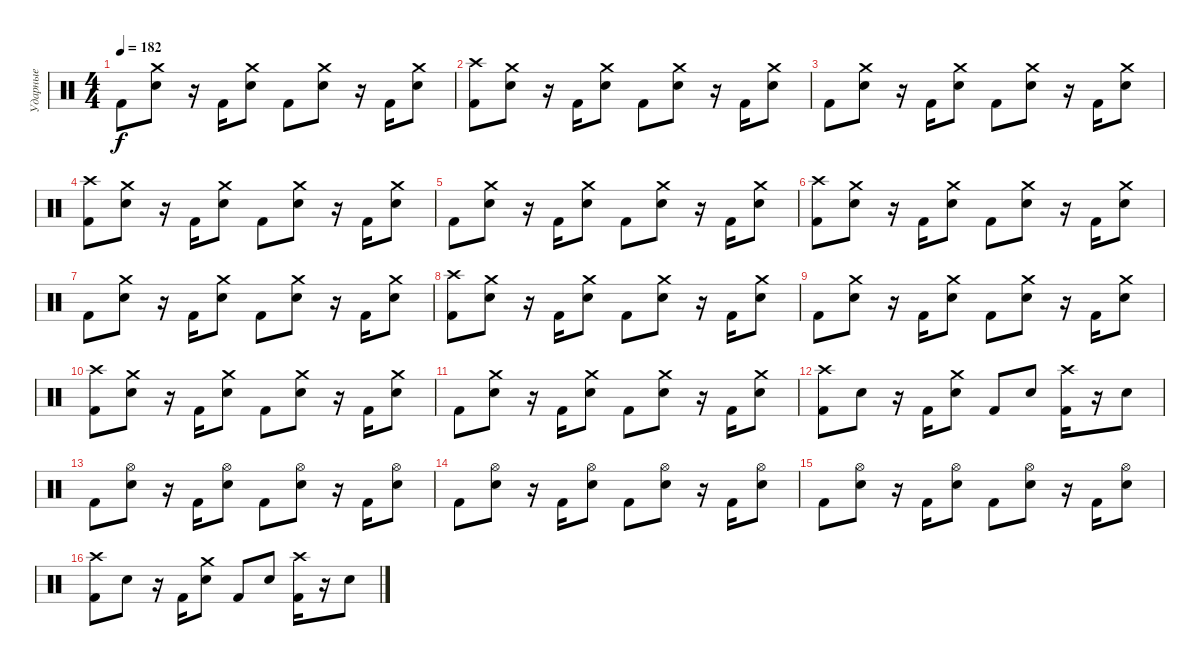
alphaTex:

\track ("Ударные" "Ударные") {instrument percussion}
\staff {score}
\articulation defaults
\ts (4 4)
\tempo 182
\clef neutral
\ks c "Kick (hit) 2".8{dy f}
("Crash medium (hit)" "Electric Snare (hit)").8 r.16 "Kick (hit) 2".16 ("Crash medium (hit)" "Electric Snare (hit)").8 "Kick (hit) 2".8 ("Crash medium (hit)" "Electric Snare (hit)").8 r.16 "Kick (hit) 2".16 ("Crash medium (hit)" "Electric Snare (hit)").8 |
("Crash high (hit)" "Kick (hit) 2").8 ("Crash medium (hit)" "Electric Snare (hit)").8 r.16 "Kick (hit) 2".16 ("Crash medium (hit)" "Electric Snare (hit)").8 "Kick (hit) 2".8 ("Crash medium (hit)" "Electric Snare (hit)").8 r.16 "Kick (hit) 2".16 ("Crash medium (hit)" "Electric Snare (hit)").8 |
"Kick (hit) 2".8 ("Crash medium (hit)" "Electric Snare (hit)").8 r.16 "Kick (hit) 2".16 ("Crash medium (hit)" "Electric Snare (hit)").8 "Kick (hit) 2".8 ("Crash medium (hit)" "Electric Snare (hit)").8 r.16 "Kick (hit) 2".16 ("Crash medium (hit)" "Electric Snare (hit)").8 |
("Crash high (hit)" "Kick (hit) 2").8 ("Crash medium (hit)" "Electric Snare (hit)").8 r.16 "Kick (hit) 2".16 ("Crash medium (hit)" "Electric Snare (hit)").8 "Kick (hit) 2".8 ("Crash medium (hit)" "Electric Snare (hit)").8 r.16 "Kick (hit) 2".16 ("Crash medium (hit)" "Electric Snare (hit)").8 |
"Kick (hit) 2".8 ("Crash medium (hit)" "Electric Snare (hit)").8 r.16 "Kick (hit) 2".16 ("Crash medium (hit)" "Electric Snare (hit)").8 "Kick (hit) 2".8 ("Crash medium (hit)" "Electric Snare (hit)").8 r.16 "Kick (hit) 2".16 ("Crash medium (hit)" "Electric Snare (hit)").8 |
("Crash high (hit)" "Kick (hit) 2").8 ("Crash medium (hit)" "Electric Snare (hit)").8 r.16 "Kick (hit) 2".16 ("Crash medium (hit)" "Electric Snare (hit)").8 "Kick (hit) 2".8 ("Crash medium (hit)" "Electric Snare (hit)").8 r.16 "Kick (hit) 2".16 ("Crash medium (hit)" "Electric Snare (hit)").8 |
"Kick (hit) 2".8 ("Crash medium (hit)" "Electric Snare (hit)").8 r.16 "Kick (hit) 2".16 ("Crash medium (hit)" "Electric Snare (hit)").8 "Kick (hit) 2".8 ("Crash medium (hit)" "Electric Snare (hit)").8 r.16 "Kick (hit) 2".16 ("Crash medium (hit)" "Electric Snare (hit)").8 |
("Crash high (hit)" "Kick (hit) 2").8 ("Crash medium (hit)" "Electric Snare (hit)").8 r.16 "Kick (hit) 2".16 ("Crash medium (hit)" "Electric Snare (hit)").8 "Kick (hit) 2".8 ("Crash medium (hit)" "Electric Snare (hit)").8 r.16 "Kick (hit) 2".16 ("Crash medium (hit)" "Electric Snare (hit)").8 |
"Kick (hit) 2".8 ("Crash medium (hit)" "Electric Snare (hit)").8 r.16 "Kick (hit) 2".16 ("Crash medium (hit)" "Electric Snare (hit)").8 "Kick (hit) 2".8 ("Crash medium (hit)" "Electric Snare (hit)").8 r.16 "Kick (hit) 2".16 ("Crash medium (hit)" "Electric Snare (hit)").8 |
("Crash high (hit)" "Kick (hit) 2").8 ("Crash medium (hit)" "Electric Snare (hit)").8 r.16 "Kick (hit) 2".16 ("Crash medium (hit)" "Electric Snare (hit)").8 "Kick (hit) 2".8 ("Crash medium (hit)" "Electric Snare (hit)").8 r.16 "Kick (hit) 2".16 ("Crash medium (hit)" "Electric Snare (hit)").8 |
"Kick (hit) 2".8 ("Crash medium (hit)" "Electric Snare (hit)").8 r.16 "Kick (hit) 2".16 ("Crash medium (hit)" "Electric Snare (hit)").8 "Kick (hit) 2".8 ("Crash medium (hit)" "Electric Snare (hit)").8 r.16 "Kick (hit) 2".16 ("Crash medium (hit)" "Electric Snare (hit)").8 |
("Crash high (hit)" "Kick (hit) 2").8 "Electric Snare (hit)".8 r.16 "Kick (hit) 2".16 ("Crash medium (hit)" "Electric Snare (hit)").8 "Kick (hit) 2".8 "Electric Snare (hit)".8 ("Crash high (hit)" "Kick (hit) 2").16 r.16 "Electric Snare (hit)".8 |
"Kick (hit) 2".8 ("Hi-Hat (open)" "Electric Snare (hit)").8 r.16 "Kick (hit) 2".16 ("Hi-Hat (open)" "Electric Snare (hit)").8 "Kick (hit) 2".8 ("Hi-Hat (open)" "Electric Snare (hit)").8 r.16 "Kick (hit) 2".16 ("Hi-Hat (open)" "Electric Snare (hit)").8 |
"Kick (hit) 2".8 ("Hi-Hat (open)" "Electric Snare (hit)").8 r.16 "Kick (hit) 2".16 ("Hi-Hat (open)" "Electric Snare (hit)").8 "Kick (hit) 2".8 ("Hi-Hat (open)" "Electric Snare (hit)").8 r.16 "Kick (hit) 2".16 ("Hi-Hat (open)" "Electric Snare (hit)").8 |
"Kick (hit) 2".8 ("Hi-Hat (open)" "Electric Snare (hit)").8 r.16 "Kick (hit) 2".16 ("Hi-Hat (open)" "Electric Snare (hit)").8 "Kick (hit) 2".8 ("Hi-Hat (open)" "Electric Snare (hit)").8 r.16 "Kick (hit) 2".16 ("Hi-Hat (open)" "Electric Snare (hit)").8 |
("Crash high (hit)" "Kick (hit) 2").8 "Electric Snare (hit)".8 r.16 "Kick (hit) 2".16 ("Crash medium (hit)" "Electric Snare (hit)").8 "Kick (hit) 2".8 "Electric Snare (hit)".8 ("Crash high (hit)" "Kick (hit) 2").16 r.16 "Electric Snare (hit)".8
